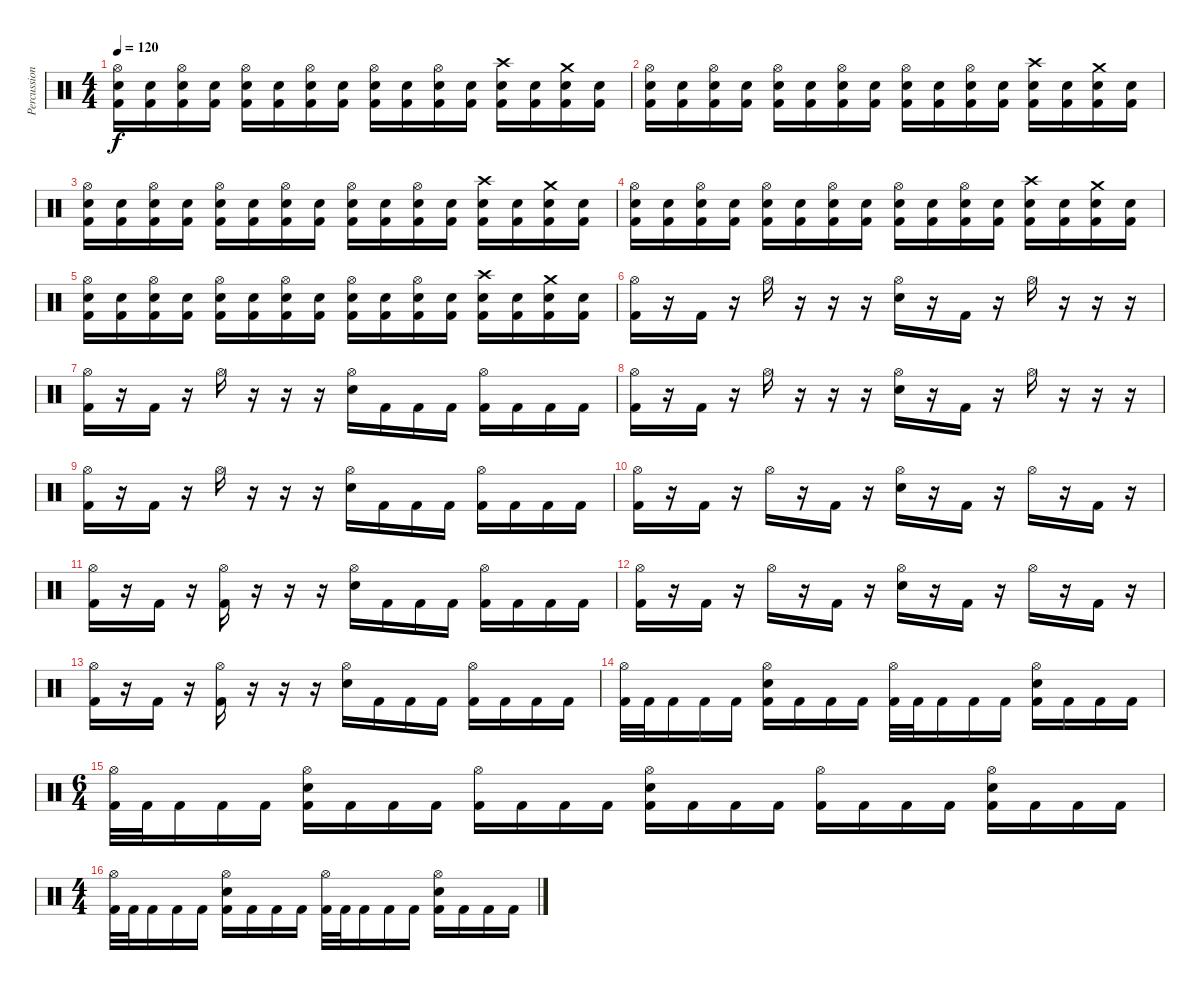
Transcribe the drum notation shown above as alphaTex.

\track ("Percussion" "Percussion") {instrument percussion}
\staff {score}
\articulation defaults
\ts (4 4)
\tempo 120
\clef neutral
\ks c
("Hi-Hat (open)" "Electric Snare (hit)" "Kick (hit) 2").16{dy f} ("Electric Snare (hit)" "Kick (hit) 2").16 ("Hi-Hat (open)" "Electric Snare (hit)" "Kick (hit) 2").16 ("Electric Snare (hit)" "Kick (hit) 2").16 ("Hi-Hat (open)" "Electric Snare (hit)" "Kick (hit) 2").16 ("Electric Snare (hit)" "Kick (hit) 2").16 ("Hi-Hat (open)" "Electric Snare (hit)" "Kick (hit) 2").16 ("Electric Snare (hit)" "Kick (hit) 2").16 ("Hi-Hat (open)" "Electric Snare (hit)" "Kick (hit) 2").16 ("Electric Snare (hit)" "Kick (hit) 2").16 ("Hi-Hat (open)" "Electric Snare (hit)" "Kick (hit) 2").16 ("Electric Snare (hit)" "Kick (hit) 2").16 ("Crash high (hit)" "Electric Snare (hit)" "Kick (hit) 2").16 ("Electric Snare (hit)" "Kick (hit) 2").16 ("Crash medium (hit)" "Electric Snare (hit)" "Kick (hit) 2").16 ("Electric Snare (hit)" "Kick (hit) 2").16 |
("Hi-Hat (open)" "Electric Snare (hit)" "Kick (hit) 2").16 ("Electric Snare (hit)" "Kick (hit) 2").16 ("Hi-Hat (open)" "Electric Snare (hit)" "Kick (hit) 2").16 ("Electric Snare (hit)" "Kick (hit) 2").16 ("Hi-Hat (open)" "Electric Snare (hit)" "Kick (hit) 2").16 ("Electric Snare (hit)" "Kick (hit) 2").16 ("Hi-Hat (open)" "Electric Snare (hit)" "Kick (hit) 2").16 ("Electric Snare (hit)" "Kick (hit) 2").16 ("Hi-Hat (open)" "Electric Snare (hit)" "Kick (hit) 2").16 ("Electric Snare (hit)" "Kick (hit) 2").16 ("Hi-Hat (open)" "Electric Snare (hit)" "Kick (hit) 2").16 ("Electric Snare (hit)" "Kick (hit) 2").16 ("Crash high (hit)" "Electric Snare (hit)" "Kick (hit) 2").16 ("Electric Snare (hit)" "Kick (hit) 2").16 ("Crash medium (hit)" "Electric Snare (hit)" "Kick (hit) 2").16 ("Electric Snare (hit)" "Kick (hit) 2").16 |
("Hi-Hat (open)" "Electric Snare (hit)" "Kick (hit) 2").16 ("Electric Snare (hit)" "Kick (hit) 2").16 ("Hi-Hat (open)" "Electric Snare (hit)" "Kick (hit) 2").16 ("Electric Snare (hit)" "Kick (hit) 2").16 ("Hi-Hat (open)" "Electric Snare (hit)" "Kick (hit) 2").16 ("Electric Snare (hit)" "Kick (hit) 2").16 ("Hi-Hat (open)" "Electric Snare (hit)" "Kick (hit) 2").16 ("Electric Snare (hit)" "Kick (hit) 2").16 ("Hi-Hat (open)" "Electric Snare (hit)" "Kick (hit) 2").16 ("Electric Snare (hit)" "Kick (hit) 2").16 ("Hi-Hat (open)" "Electric Snare (hit)" "Kick (hit) 2").16 ("Electric Snare (hit)" "Kick (hit) 2").16 ("Crash high (hit)" "Electric Snare (hit)" "Kick (hit) 2").16 ("Electric Snare (hit)" "Kick (hit) 2").16 ("Crash medium (hit)" "Electric Snare (hit)" "Kick (hit) 2").16 ("Electric Snare (hit)" "Kick (hit) 2").16 |
("Hi-Hat (open)" "Electric Snare (hit)" "Kick (hit) 2").16 ("Electric Snare (hit)" "Kick (hit) 2").16 ("Hi-Hat (open)" "Electric Snare (hit)" "Kick (hit) 2").16 ("Electric Snare (hit)" "Kick (hit) 2").16 ("Hi-Hat (open)" "Electric Snare (hit)" "Kick (hit) 2").16 ("Electric Snare (hit)" "Kick (hit) 2").16 ("Hi-Hat (open)" "Electric Snare (hit)" "Kick (hit) 2").16 ("Electric Snare (hit)" "Kick (hit) 2").16 ("Hi-Hat (open)" "Electric Snare (hit)" "Kick (hit) 2").16 ("Electric Snare (hit)" "Kick (hit) 2").16 ("Hi-Hat (open)" "Electric Snare (hit)" "Kick (hit) 2").16 ("Electric Snare (hit)" "Kick (hit) 2").16 ("Crash high (hit)" "Electric Snare (hit)" "Kick (hit) 2").16 ("Electric Snare (hit)" "Kick (hit) 2").16 ("Crash medium (hit)" "Electric Snare (hit)" "Kick (hit) 2").16 ("Electric Snare (hit)" "Kick (hit) 2").16 |
("Hi-Hat (open)" "Electric Snare (hit)" "Kick (hit) 2").16 ("Electric Snare (hit)" "Kick (hit) 2").16 ("Hi-Hat (open)" "Electric Snare (hit)" "Kick (hit) 2").16 ("Electric Snare (hit)" "Kick (hit) 2").16 ("Hi-Hat (open)" "Electric Snare (hit)" "Kick (hit) 2").16 ("Electric Snare (hit)" "Kick (hit) 2").16 ("Hi-Hat (open)" "Electric Snare (hit)" "Kick (hit) 2").16 ("Electric Snare (hit)" "Kick (hit) 2").16 ("Hi-Hat (open)" "Electric Snare (hit)" "Kick (hit) 2").16 ("Electric Snare (hit)" "Kick (hit) 2").16 ("Hi-Hat (open)" "Electric Snare (hit)" "Kick (hit) 2").16 ("Electric Snare (hit)" "Kick (hit) 2").16 ("Crash high (hit)" "Electric Snare (hit)" "Kick (hit) 2").16 ("Electric Snare (hit)" "Kick (hit) 2").16 ("Crash medium (hit)" "Electric Snare (hit)" "Kick (hit) 2").16 ("Electric Snare (hit)" "Kick (hit) 2").16 |
("Hi-Hat (open)" "Kick (hit) 2").16 r.16 "Kick (hit) 2".16 r.16 "Hi-Hat (open)".16 r.16 r.16 r.16 ("Hi-Hat (open)" "Electric Snare (hit)").16 r.16 "Kick (hit) 2".16 r.16 "Hi-Hat (open)".16 r.16 r.16 r.16 |
("Hi-Hat (open)" "Kick (hit) 2").16 r.16 "Kick (hit) 2".16 r.16 "Hi-Hat (open)".16 r.16 r.16 r.16 ("Hi-Hat (open)" "Electric Snare (hit)").16 "Kick (hit) 2".16 "Kick (hit) 2".16 "Kick (hit) 2".16 ("Hi-Hat (open)" "Kick (hit) 2").16 "Kick (hit) 2".16 "Kick (hit) 2".16 "Kick (hit) 2".16 |
("Hi-Hat (open)" "Kick (hit) 2").16 r.16 "Kick (hit) 2".16 r.16 "Hi-Hat (open)".16 r.16 r.16 r.16 ("Hi-Hat (open)" "Electric Snare (hit)").16 r.16 "Kick (hit) 2".16 r.16 "Hi-Hat (open)".16 r.16 r.16 r.16 |
("Hi-Hat (open)" "Kick (hit) 2").16 r.16 "Kick (hit) 2".16 r.16 "Hi-Hat (open)".16 r.16 r.16 r.16 ("Hi-Hat (open)" "Electric Snare (hit)").16 "Kick (hit) 2".16 "Kick (hit) 2".16 "Kick (hit) 2".16 ("Hi-Hat (open)" "Kick (hit) 2").16 "Kick (hit) 2".16 "Kick (hit) 2".16 "Kick (hit) 2".16 |
("Hi-Hat (open)" "Kick (hit) 2").16 r.16 "Kick (hit) 2".16 r.16 "Hi-Hat (open)".16 r.16 "Kick (hit) 2".16 r.16 ("Hi-Hat (open)" "Electric Snare (hit)").16 r.16 "Kick (hit) 2".16 r.16 "Hi-Hat (open)".16 r.16 "Kick (hit) 2".16 r.16 |
("Hi-Hat (open)" "Kick (hit) 2").16 r.16 "Kick (hit) 2".16 r.16 ("Hi-Hat (open)" "Kick (hit) 2").16 r.16 r.16 r.16 ("Hi-Hat (open)" "Electric Snare (hit)").16 "Kick (hit) 2".16 "Kick (hit) 2".16 "Kick (hit) 2".16 ("Hi-Hat (open)" "Kick (hit) 2").16 "Kick (hit) 2".16 "Kick (hit) 2".16 "Kick (hit) 2".16 |
("Hi-Hat (open)" "Kick (hit) 2").16 r.16 "Kick (hit) 2".16 r.16 "Hi-Hat (open)".16 r.16 "Kick (hit) 2".16 r.16 ("Hi-Hat (open)" "Electric Snare (hit)").16 r.16 "Kick (hit) 2".16 r.16 "Hi-Hat (open)".16 r.16 "Kick (hit) 2".16 r.16 |
("Hi-Hat (open)" "Kick (hit) 2").16 r.16 "Kick (hit) 2".16 r.16 ("Hi-Hat (open)" "Kick (hit) 2").16 r.16 r.16 r.16 ("Hi-Hat (open)" "Electric Snare (hit)").16 "Kick (hit) 2".16 "Kick (hit) 2".16 "Kick (hit) 2".16 ("Hi-Hat (open)" "Kick (hit) 2").16 "Kick (hit) 2".16 "Kick (hit) 2".16 "Kick (hit) 2".16 |
("Kick (hit) 2" "Hi-Hat (open)").32 "Kick (hit) 2".32 "Kick (hit) 2".16 "Kick (hit) 2".16 "Kick (hit) 2".16 ("Electric Snare (hit)" "Kick (hit) 2" "Hi-Hat (open)").16 "Kick (hit) 2".16 "Kick (hit) 2".16 "Kick (hit) 2".16 ("Kick (hit) 2" "Hi-Hat (open)").32 "Kick (hit) 2".32 "Kick (hit) 2".16 "Kick (hit) 2".16 "Kick (hit) 2".16 ("Electric Snare (hit)" "Kick (hit) 2" "Hi-Hat (open)").16 "Kick (hit) 2".16 "Kick (hit) 2".16 "Kick (hit) 2".16 |
\ts (6 4)
("Kick (hit) 2" "Hi-Hat (open)").32 "Kick (hit) 2".32 "Kick (hit) 2".16 "Kick (hit) 2".16 "Kick (hit) 2".16 ("Electric Snare (hit)" "Kick (hit) 2" "Hi-Hat (open)").16 "Kick (hit) 2".16 "Kick (hit) 2".16 "Kick (hit) 2".16 ("Kick (hit) 2" "Hi-Hat (open)").16 "Kick (hit) 2".16 "Kick (hit) 2".16 "Kick (hit) 2".16 ("Electric Snare (hit)" "Kick (hit) 2" "Hi-Hat (open)").16 "Kick (hit) 2".16 "Kick (hit) 2".16 "Kick (hit) 2".16 ("Kick (hit) 2" "Hi-Hat (open)").16 "Kick (hit) 2".16 "Kick (hit) 2".16 "Kick (hit) 2".16 ("Electric Snare (hit)" "Kick (hit) 2" "Hi-Hat (open)").16 "Kick (hit) 2".16 "Kick (hit) 2".16 "Kick (hit) 2".16 |
\ts (4 4)
("Kick (hit) 2" "Hi-Hat (open)").32 "Kick (hit) 2".32 "Kick (hit) 2".16 "Kick (hit) 2".16 "Kick (hit) 2".16 ("Electric Snare (hit)" "Kick (hit) 2" "Hi-Hat (open)").16 "Kick (hit) 2".16 "Kick (hit) 2".16 "Kick (hit) 2".16 ("Kick (hit) 2" "Hi-Hat (open)").32 "Kick (hit) 2".32 "Kick (hit) 2".16 "Kick (hit) 2".16 "Kick (hit) 2".16 ("Electric Snare (hit)" "Kick (hit) 2" "Hi-Hat (open)").16 "Kick (hit) 2".16 "Kick (hit) 2".16 "Kick (hit) 2".16
